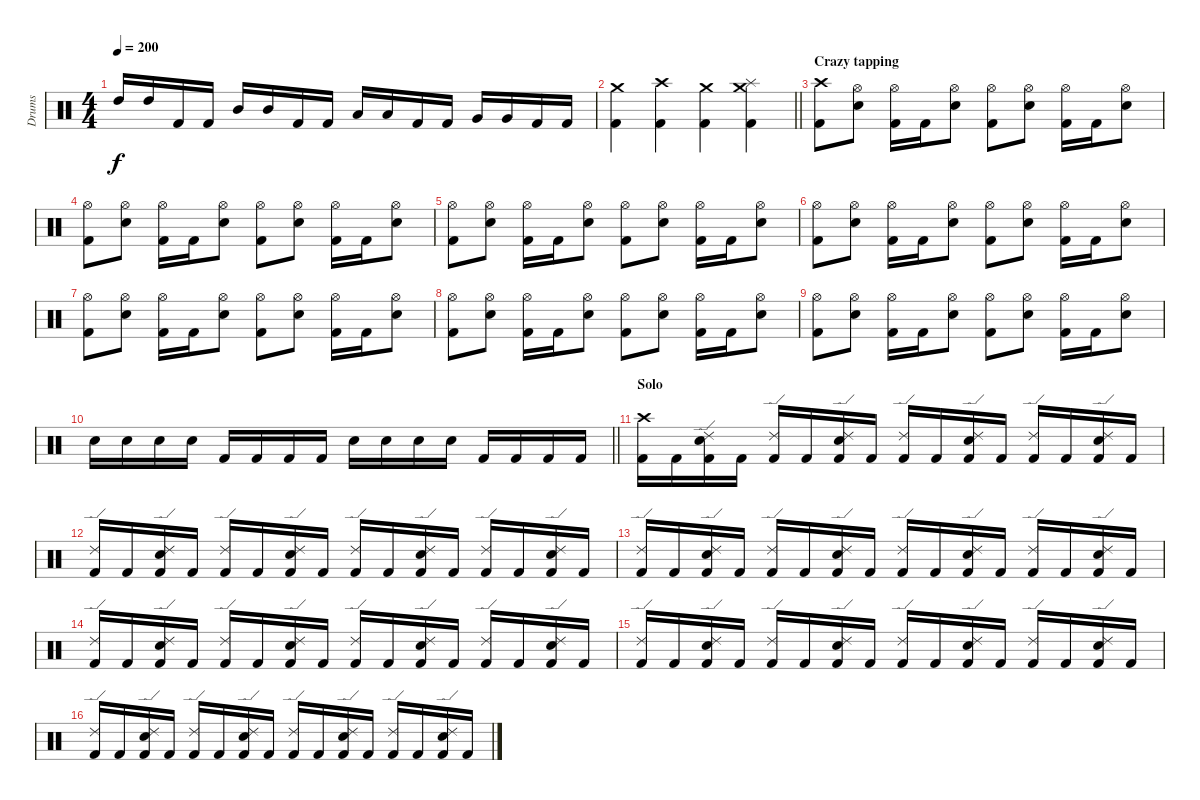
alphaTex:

\track ("Drums" "Drums") {instrument percussion}
\staff {score}
\articulation defaults
\ts (4 4)
\tempo 200
\clef neutral
\ks c "High Tom (hit)".16{dy f} "High Tom (hit)".16 "Kick (hit) 2".16 "Kick (hit) 2".16 "Mid Tom (hit)".16 "Mid Tom (hit)".16 "Kick (hit) 2".16 "Kick (hit) 2".16 "Low Tom (hit)".16 "Low Tom (hit)".16 "Kick (hit) 2".16 "Kick (hit) 2".16 "Very Low Tom (hit)".16 "Very Low Tom (hit)".16 "Kick (hit) 2".16 "Kick (hit) 2".16
|
\barLineRight lightlight
("Kick (hit) 2" "Crash medium (hit)").4 ("Kick (hit) 2" "Crash high (hit)").4 ("Kick (hit) 2" "Crash medium (hit)").4 ("Kick (hit) 2" "Splash (hit)" "Crash medium (hit)").4 |
\section ("" "Crazy tapping")
("Kick (hit) 2" "Crash high (hit)").8 ("Snare (hit) 2" "Hi-Hat (open)").8 ("Kick (hit) 2" "Hi-Hat (open)").16 "Kick (hit) 2".16 ("Snare (hit) 2" "Hi-Hat (open)").8 ("Kick (hit) 2" "Hi-Hat (open)").8 ("Snare (hit) 2" "Hi-Hat (open)").8 ("Kick (hit) 2" "Hi-Hat (open)").16 "Kick (hit) 2".16 ("Snare (hit) 2" "Hi-Hat (open)").8 |
("Kick (hit) 2" "Hi-Hat (open)").8 ("Snare (hit) 2" "Hi-Hat (open)").8 ("Kick (hit) 2" "Hi-Hat (open)").16 "Kick (hit) 2".16 ("Snare (hit) 2" "Hi-Hat (open)").8 ("Kick (hit) 2" "Hi-Hat (open)").8 ("Snare (hit) 2" "Hi-Hat (open)").8 ("Kick (hit) 2" "Hi-Hat (open)").16 "Kick (hit) 2".16 ("Snare (hit) 2" "Hi-Hat (open)").8 |
("Kick (hit) 2" "Hi-Hat (open)").8 ("Snare (hit) 2" "Hi-Hat (open)").8 ("Kick (hit) 2" "Hi-Hat (open)").16 "Kick (hit) 2".16 ("Snare (hit) 2" "Hi-Hat (open)").8 ("Kick (hit) 2" "Hi-Hat (open)").8 ("Snare (hit) 2" "Hi-Hat (open)").8 ("Kick (hit) 2" "Hi-Hat (open)").16 "Kick (hit) 2".16 ("Snare (hit) 2" "Hi-Hat (open)").8 |
("Kick (hit) 2" "Hi-Hat (open)").8 ("Snare (hit) 2" "Hi-Hat (open)").8 ("Kick (hit) 2" "Hi-Hat (open)").16 "Kick (hit) 2".16 ("Snare (hit) 2" "Hi-Hat (open)").8 ("Kick (hit) 2" "Hi-Hat (open)").8 ("Snare (hit) 2" "Hi-Hat (open)").8 ("Kick (hit) 2" "Hi-Hat (open)").16 "Kick (hit) 2".16 ("Snare (hit) 2" "Hi-Hat (open)").8 |
("Kick (hit) 2" "Hi-Hat (open)").8 ("Snare (hit) 2" "Hi-Hat (open)").8 ("Kick (hit) 2" "Hi-Hat (open)").16 "Kick (hit) 2".16 ("Snare (hit) 2" "Hi-Hat (open)").8 ("Kick (hit) 2" "Hi-Hat (open)").8 ("Snare (hit) 2" "Hi-Hat (open)").8 ("Kick (hit) 2" "Hi-Hat (open)").16 "Kick (hit) 2".16 ("Snare (hit) 2" "Hi-Hat (open)").8 |
("Kick (hit) 2" "Hi-Hat (open)").8 ("Snare (hit) 2" "Hi-Hat (open)").8 ("Kick (hit) 2" "Hi-Hat (open)").16 "Kick (hit) 2".16 ("Snare (hit) 2" "Hi-Hat (open)").8 ("Kick (hit) 2" "Hi-Hat (open)").8 ("Snare (hit) 2" "Hi-Hat (open)").8 ("Kick (hit) 2" "Hi-Hat (open)").16 "Kick (hit) 2".16 ("Snare (hit) 2" "Hi-Hat (open)").8 |
("Kick (hit) 2" "Hi-Hat (open)").8 ("Snare (hit) 2" "Hi-Hat (open)").8 ("Kick (hit) 2" "Hi-Hat (open)").16 "Kick (hit) 2".16 ("Snare (hit) 2" "Hi-Hat (open)").8 ("Kick (hit) 2" "Hi-Hat (open)").8 ("Snare (hit) 2" "Hi-Hat (open)").8 ("Kick (hit) 2" "Hi-Hat (open)").16 "Kick (hit) 2".16 ("Snare (hit) 2" "Hi-Hat (open)").8 |
\barLineRight lightlight "Snare (hit) 2".16 "Snare (hit) 2".16 "Snare (hit) 2".16 "Snare (hit) 2".16 "Kick (hit) 2".16 "Kick (hit) 2".16 "Kick (hit) 2".16 "Kick (hit) 2".16 "Snare (hit) 2".16 "Snare (hit) 2".16 "Snare (hit) 2".16 "Snare (hit) 2".16 "Kick (hit) 2".16 "Kick (hit) 2".16 "Kick (hit) 2".16 "Kick (hit) 2".16
|
\section ("" "Solo")
("Kick (hit) 2" "Crash high (hit)").16 "Kick (hit) 2".16 ("Kick (hit) 2" "Snare (hit) 2" "Ride (edge) 2").16 "Kick (hit) 2".16 ("Kick (hit) 2" "Ride (edge) 2").16 "Kick (hit) 2".16 ("Kick (hit) 2" "Snare (hit) 2" "Ride (edge) 2").16 "Kick (hit) 2".16 ("Kick (hit) 2" "Ride (edge) 2").16 "Kick (hit) 2".16 ("Kick (hit) 2" "Snare (hit) 2" "Ride (edge) 2").16 "Kick (hit) 2".16 ("Kick (hit) 2" "Ride (edge) 2").16 "Kick (hit) 2".16 ("Kick (hit) 2" "Snare (hit) 2" "Ride (edge) 2").16 "Kick (hit) 2".16 |
("Kick (hit) 2" "Ride (edge) 2").16 "Kick (hit) 2".16 ("Kick (hit) 2" "Snare (hit) 2" "Ride (edge) 2").16 "Kick (hit) 2".16 ("Kick (hit) 2" "Ride (edge) 2").16 "Kick (hit) 2".16 ("Kick (hit) 2" "Snare (hit) 2" "Ride (edge) 2").16 "Kick (hit) 2".16 ("Kick (hit) 2" "Ride (edge) 2").16 "Kick (hit) 2".16 ("Kick (hit) 2" "Snare (hit) 2" "Ride (edge) 2").16 "Kick (hit) 2".16 ("Kick (hit) 2" "Ride (edge) 2").16 "Kick (hit) 2".16 ("Kick (hit) 2" "Snare (hit) 2" "Ride (edge) 2").16 "Kick (hit) 2".16 |
("Kick (hit) 2" "Ride (edge) 2").16 "Kick (hit) 2".16 ("Kick (hit) 2" "Snare (hit) 2" "Ride (edge) 2").16 "Kick (hit) 2".16 ("Kick (hit) 2" "Ride (edge) 2").16 "Kick (hit) 2".16 ("Kick (hit) 2" "Snare (hit) 2" "Ride (edge) 2").16 "Kick (hit) 2".16 ("Kick (hit) 2" "Ride (edge) 2").16 "Kick (hit) 2".16 ("Kick (hit) 2" "Snare (hit) 2" "Ride (edge) 2").16 "Kick (hit) 2".16 ("Kick (hit) 2" "Ride (edge) 2").16 "Kick (hit) 2".16 ("Kick (hit) 2" "Snare (hit) 2" "Ride (edge) 2").16 "Kick (hit) 2".16 |
("Kick (hit) 2" "Ride (edge) 2").16 "Kick (hit) 2".16 ("Kick (hit) 2" "Snare (hit) 2" "Ride (edge) 2").16 "Kick (hit) 2".16 ("Kick (hit) 2" "Ride (edge) 2").16 "Kick (hit) 2".16 ("Kick (hit) 2" "Snare (hit) 2" "Ride (edge) 2").16 "Kick (hit) 2".16 ("Kick (hit) 2" "Ride (edge) 2").16 "Kick (hit) 2".16 ("Kick (hit) 2" "Snare (hit) 2" "Ride (edge) 2").16 "Kick (hit) 2".16 ("Kick (hit) 2" "Ride (edge) 2").16 "Kick (hit) 2".16 ("Kick (hit) 2" "Snare (hit) 2" "Ride (edge) 2").16 "Kick (hit) 2".16 |
("Kick (hit) 2" "Ride (edge) 2").16 "Kick (hit) 2".16 ("Kick (hit) 2" "Snare (hit) 2" "Ride (edge) 2").16 "Kick (hit) 2".16 ("Kick (hit) 2" "Ride (edge) 2").16 "Kick (hit) 2".16 ("Kick (hit) 2" "Snare (hit) 2" "Ride (edge) 2").16 "Kick (hit) 2".16 ("Kick (hit) 2" "Ride (edge) 2").16 "Kick (hit) 2".16 ("Kick (hit) 2" "Snare (hit) 2" "Ride (edge) 2").16 "Kick (hit) 2".16 ("Kick (hit) 2" "Ride (edge) 2").16 "Kick (hit) 2".16 ("Kick (hit) 2" "Snare (hit) 2" "Ride (edge) 2").16 "Kick (hit) 2".16 |
("Kick (hit) 2" "Ride (edge) 2").16 "Kick (hit) 2".16 ("Kick (hit) 2" "Snare (hit) 2" "Ride (edge) 2").16 "Kick (hit) 2".16 ("Kick (hit) 2" "Ride (edge) 2").16 "Kick (hit) 2".16 ("Kick (hit) 2" "Snare (hit) 2" "Ride (edge) 2").16 "Kick (hit) 2".16 ("Kick (hit) 2" "Ride (edge) 2").16 "Kick (hit) 2".16 ("Kick (hit) 2" "Snare (hit) 2" "Ride (edge) 2").16 "Kick (hit) 2".16 ("Kick (hit) 2" "Ride (edge) 2").16 "Kick (hit) 2".16 ("Kick (hit) 2" "Snare (hit) 2" "Ride (edge) 2").16 "Kick (hit) 2".16
